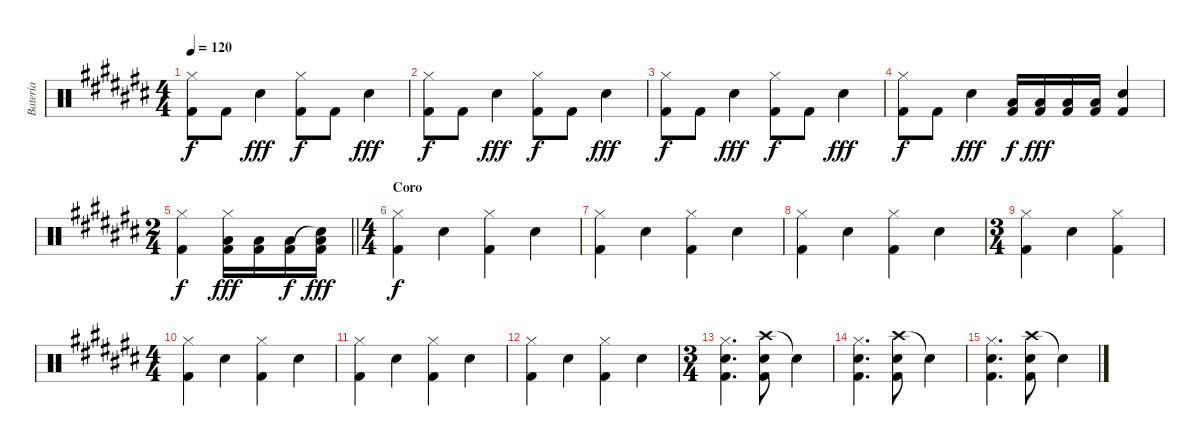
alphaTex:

\track ("Batería" "Batería") {instrument percussion}
\staff {score}
\articulation defaults
\ts (4 4)
\tempo 120
\clef neutral
\ks c#
("Hi-Hat (closed)" "Kick (hit) 2").8{dy f} "Kick (hit) 2".8 "Snare (hit) 2".4{dy fff} ("Hi-Hat (closed)" "Kick (hit) 2").8{dy f} "Kick (hit) 2".8 "Snare (hit) 2".4{dy fff} |
("Hi-Hat (closed)" "Kick (hit) 2").8{dy f} "Kick (hit) 2".8 "Snare (hit) 2".4{dy fff} ("Hi-Hat (closed)" "Kick (hit) 2").8{dy f} "Kick (hit) 2".8 "Snare (hit) 2".4{dy fff} |
("Hi-Hat (closed)" "Kick (hit) 2").8{dy f} "Kick (hit) 2".8 "Snare (hit) 2".4{dy fff} ("Hi-Hat (closed)" "Kick (hit) 2").8{dy f} "Kick (hit) 2".8 "Snare (hit) 2".4{dy fff} |
("Hi-Hat (closed)" "Kick (hit) 2").8{dy f} "Kick (hit) 2".8 "Snare (hit) 2".4{dy fff} ("Low Tom (hit)" "Kick (hit) 2").16{dy f} ("Low Tom (hit)" "Kick (hit) 2").16{dy fff} ("Low Tom (hit)" "Kick (hit) 2").16 ("Low Tom (hit)" "Kick (hit) 2").16 ("Snare (hit) 2" "Kick (hit) 2").4 |
\ts (2 4)
\barLineRight lightlight
("Hi-Hat (closed)" "Kick (hit) 2").4{dy f} ("Low Tom (hit)" "Hi-Hat (closed)" "Kick (hit) 2").16{dy fff} ("Low Tom (hit)" "Kick (hit) 2").16 ("Low Tom (hit)" "Kick (hit) 2").16{dy f} ("Low Tom (hit)" "Snare (hit)"{t} "Kick (hit) 2").16{dy fff} |
\ts (4 4)
\section ("" "Coro")
("Hi-Hat (closed)" "Kick (hit) 2").4{dy f} "Electric Snare (hit)".4 ("Hi-Hat (closed)" "Kick (hit) 2").4 "Electric Snare (hit)".4 |
("Hi-Hat (closed)" "Kick (hit) 2").4 "Electric Snare (hit)".4 ("Hi-Hat (closed)" "Kick (hit) 2").4 "Electric Snare (hit)".4 |
("Hi-Hat (closed)" "Kick (hit) 2").4 "Electric Snare (hit)".4 ("Hi-Hat (closed)" "Kick (hit) 2").4 "Electric Snare (hit)".4 |
\ts (3 4)
("Hi-Hat (closed)" "Kick (hit) 2").4 "Electric Snare (hit)".4 ("Hi-Hat (closed)" "Kick (hit) 2").4 |
\ts (4 4)
("Hi-Hat (closed)" "Kick (hit) 2").4 "Electric Snare (hit)".4 ("Hi-Hat (closed)" "Kick (hit) 2").4 "Electric Snare (hit)".4 |
("Hi-Hat (closed)" "Kick (hit) 2").4 "Electric Snare (hit)".4 ("Hi-Hat (closed)" "Kick (hit) 2").4 "Electric Snare (hit)".4 |
("Hi-Hat (closed)" "Kick (hit) 2").4 "Electric Snare (hit)".4 ("Hi-Hat (closed)" "Kick (hit) 2").4 "Electric Snare (hit)".4 |
\ts (3 4)
("Hi-Hat (closed)" "Electric Snare (hit)" "Kick (hit) 2").4{d} ("Crash high (hit)" "Electric Snare (hit)" "Kick (hit) 2").8 "Snare (hit)"{t}.4 |
("Hi-Hat (closed)" "Electric Snare (hit)" "Kick (hit) 2").4{d} ("Crash high (hit)" "Electric Snare (hit)" "Kick (hit) 2").8 "Snare (hit)"{t}.4 |
("Hi-Hat (closed)" "Electric Snare (hit)" "Kick (hit) 2").4{d} ("Crash high (hit)" "Electric Snare (hit)" "Kick (hit) 2").8 "Snare (hit)"{t}.4
